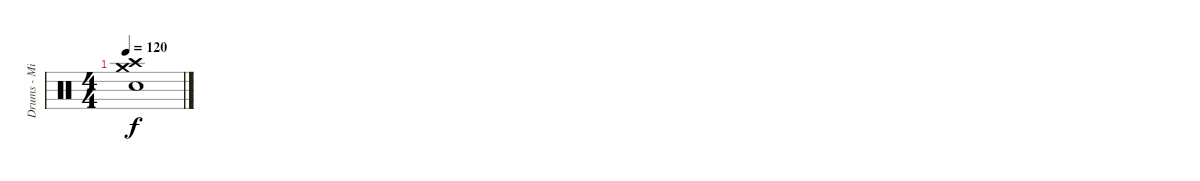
\track ("Drums - Mikko" "Drums - Mi") {instrument percussion}
\staff {score}
\articulation defaults
\ts (4 4)
\tempo 120
\clef neutral
\ks c
("Crash medium (hit)" "Crash high (hit)" "Snare (hit) 2").1{dy f}
